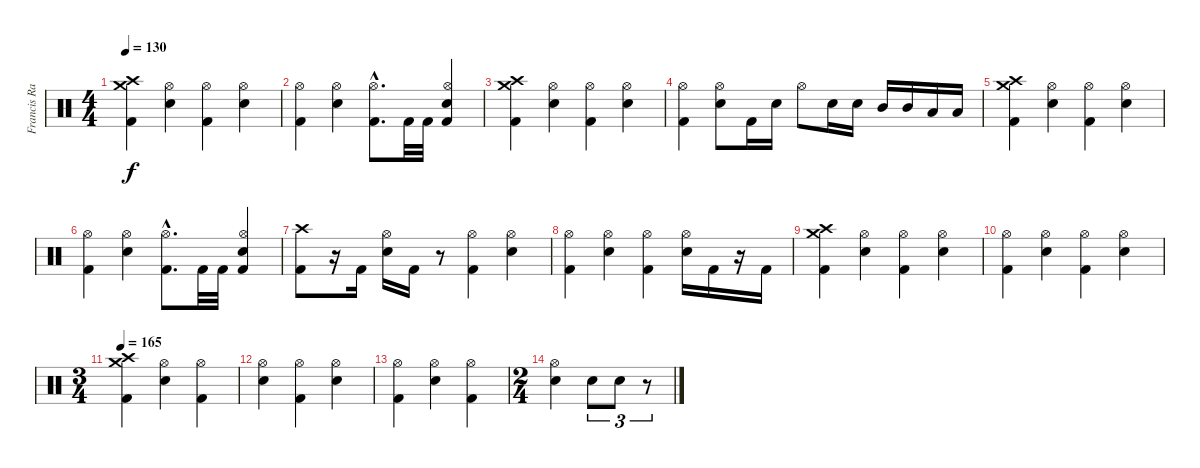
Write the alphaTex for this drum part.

\track ("Francis Ramirez" "Francis Ra") {instrument percussion}
\staff {score}
\articulation defaults
\ts (4 4)
\tempo 130
\clef neutral
\ks c
("Crash high (hit)" "Crash medium (hit)" "Kick (hit) 2").4{dy f} ("Hi-Hat (open)" "Electric Snare (hit)").4 ("Hi-Hat (open)" "Kick (hit) 2").4 ("Hi-Hat (open)" "Electric Snare (hit)").4 |
("Hi-Hat (open)" "Kick (hit) 2").4 ("Hi-Hat (open)" "Electric Snare (hit)").4 ("Hi-Hat (open)"{hac} "Kick (hit) 2"{hac}).8{d} "Kick (hit) 2".32 "Kick (hit) 2".32 ("Hi-Hat (open)" "Electric Snare (hit)" "Kick (hit) 2").4 |
("Crash high (hit)" "Crash medium (hit)" "Kick (hit) 2").4 ("Hi-Hat (open)" "Electric Snare (hit)").4 ("Hi-Hat (open)" "Kick (hit) 2").4 ("Hi-Hat (open)" "Electric Snare (hit)").4 |
("Hi-Hat (open)" "Kick (hit) 2").4 ("Hi-Hat (open)" "Electric Snare (hit)").8 "Kick (hit) 2".16 "Electric Snare (hit)".16 "Hi-Hat (open)".8 "Electric Snare (hit)".16 "Electric Snare (hit)".16 "Mid Tom (hit)".16 "Mid Tom (hit)".16 "Low Tom (hit)".16 "Low Tom (hit)".16 |
("Crash high (hit)" "Crash medium (hit)" "Kick (hit) 2").4 ("Hi-Hat (open)" "Electric Snare (hit)").4 ("Hi-Hat (open)" "Kick (hit) 2").4 ("Hi-Hat (open)" "Electric Snare (hit)").4 |
("Hi-Hat (open)" "Kick (hit) 2").4 ("Hi-Hat (open)" "Electric Snare (hit)").4 ("Hi-Hat (open)"{hac} "Kick (hit) 2"{hac}).8{d} "Kick (hit) 2".32 "Kick (hit) 2".32 ("Hi-Hat (open)" "Electric Snare (hit)" "Kick (hit) 2").4 |
("Crash high (hit)" "Kick (hit) 2").8 r.16 "Kick (hit) 2".16 ("Hi-Hat (open)" "Electric Snare (hit)").16 "Kick (hit) 2".16 r.8 ("Hi-Hat (open)" "Kick (hit) 2").4 ("Hi-Hat (open)" "Electric Snare (hit)").4 |
("Hi-Hat (open)" "Kick (hit) 2").4 ("Hi-Hat (open)" "Electric Snare (hit)").4 ("Hi-Hat (open)" "Kick (hit) 2").4 ("Hi-Hat (open)" "Electric Snare (hit)").16 "Kick (hit) 2".16 r.16 "Kick (hit) 2".16 |
("Crash high (hit)" "Crash medium (hit)" "Kick (hit) 2").4 ("Hi-Hat (open)" "Electric Snare (hit)").4 ("Hi-Hat (open)" "Kick (hit) 2").4 ("Hi-Hat (open)" "Electric Snare (hit)").4 |
("Hi-Hat (open)" "Kick (hit) 2").4 ("Hi-Hat (open)" "Electric Snare (hit)").4 ("Hi-Hat (open)" "Kick (hit) 2").4 ("Hi-Hat (open)" "Electric Snare (hit)").4 |
\ts (3 4)
\tempo 165
("Crash high (hit)" "Crash medium (hit)" "Kick (hit) 2").4 ("Hi-Hat (open)" "Electric Snare (hit)").4 ("Hi-Hat (open)" "Kick (hit) 2").4 |
("Hi-Hat (open)" "Electric Snare (hit)").4 ("Hi-Hat (open)" "Kick (hit) 2").4 ("Hi-Hat (open)" "Electric Snare (hit)").4 |
("Hi-Hat (open)" "Kick (hit) 2").4 ("Hi-Hat (open)" "Electric Snare (hit)").4 ("Hi-Hat (open)" "Kick (hit) 2").4 |
\ts (2 4)
("Hi-Hat (open)" "Electric Snare (hit)").4 "Electric Snare (hit)".8{tu (3 2)} "Electric Snare (hit)".8{tu (3 2)} r.8{tu (3 2)}
